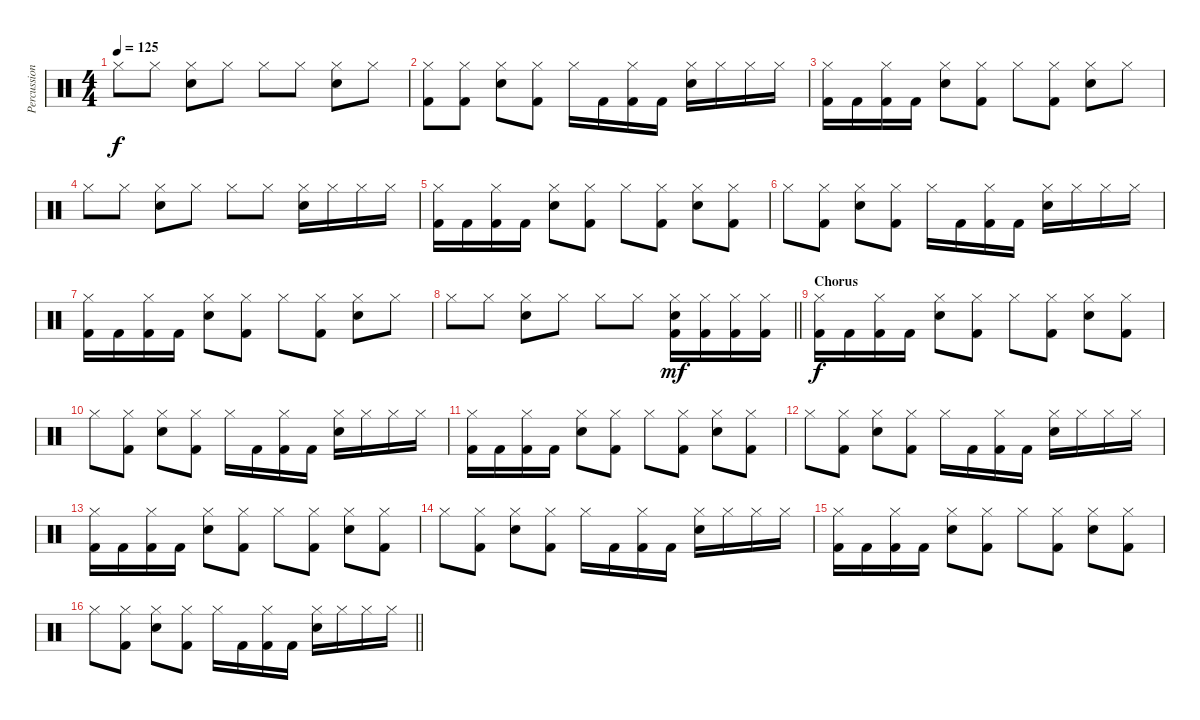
\track ("Percussion" "Percussion") {instrument percussion}
\staff {score}
\articulation defaults
\ts (4 4)
\tempo 125
\clef neutral
\ks c "Hi-Hat (closed)".8{dy f} "Hi-Hat (closed)".8
("Hi-Hat (closed)" "Electric Snare (hit)").8 "Hi-Hat (closed)".8 "Hi-Hat (closed)".8 "Hi-Hat (closed)".8 ("Hi-Hat (closed)" "Electric Snare (hit)").8 "Hi-Hat (closed)".8 |
("Hi-Hat (closed)" "Kick (hit) 2").8 ("Hi-Hat (closed)" "Kick (hit) 2").8 ("Hi-Hat (closed)" "Electric Snare (hit)").8 ("Hi-Hat (closed)" "Kick (hit) 2").8 "Hi-Hat (closed)".16 "Kick (hit) 2".16 ("Hi-Hat (closed)" "Kick (hit) 2").16 "Kick (hit) 2".16 ("Hi-Hat (closed)" "Electric Snare (hit)").16 "Hi-Hat (closed)".16 "Hi-Hat (closed)".16 "Hi-Hat (closed)".16 |
("Hi-Hat (closed)" "Kick (hit) 2").16 "Kick (hit) 2".16 ("Hi-Hat (closed)" "Kick (hit) 2").16 "Kick (hit) 2".16 ("Hi-Hat (closed)" "Electric Snare (hit)").8 ("Hi-Hat (closed)" "Kick (hit) 2").8 "Hi-Hat (closed)".8 ("Hi-Hat (closed)" "Kick (hit) 2").8 ("Hi-Hat (closed)" "Electric Snare (hit)").8 "Hi-Hat (closed)".8 |
"Hi-Hat (closed)".8 "Hi-Hat (closed)".8 ("Hi-Hat (closed)" "Electric Snare (hit)").8 "Hi-Hat (closed)".8 "Hi-Hat (closed)".8 "Hi-Hat (closed)".8 ("Hi-Hat (closed)" "Electric Snare (hit)").16 "Hi-Hat (closed)".16 "Hi-Hat (closed)".16 "Hi-Hat (closed)".16 |
("Hi-Hat (closed)" "Kick (hit) 2").16 "Kick (hit) 2".16 ("Hi-Hat (closed)" "Kick (hit) 2").16 "Kick (hit) 2".16 ("Hi-Hat (closed)" "Electric Snare (hit)").8 ("Hi-Hat (closed)" "Kick (hit) 2").8 "Hi-Hat (closed)".8 ("Hi-Hat (closed)" "Kick (hit) 2").8 ("Hi-Hat (closed)" "Electric Snare (hit)").8 ("Hi-Hat (closed)" "Kick (hit) 2").8 |
"Hi-Hat (closed)".8 ("Hi-Hat (closed)" "Kick (hit) 2").8 ("Hi-Hat (closed)" "Electric Snare (hit)").8 ("Hi-Hat (closed)" "Kick (hit) 2").8 "Hi-Hat (closed)".16 "Kick (hit) 2".16 ("Hi-Hat (closed)" "Kick (hit) 2").16 "Kick (hit) 2".16 ("Hi-Hat (closed)" "Electric Snare (hit)").16 "Hi-Hat (closed)".16 "Hi-Hat (closed)".16 "Hi-Hat (closed)".16 |
("Hi-Hat (closed)" "Kick (hit) 2").16 "Kick (hit) 2".16 ("Hi-Hat (closed)" "Kick (hit) 2").16 "Kick (hit) 2".16 ("Hi-Hat (closed)" "Electric Snare (hit)").8 ("Hi-Hat (closed)" "Kick (hit) 2").8 "Hi-Hat (closed)".8 ("Hi-Hat (closed)" "Kick (hit) 2").8 ("Hi-Hat (closed)" "Electric Snare (hit)").8 "Hi-Hat (closed)".8 |
\barLineRight lightlight "Hi-Hat (closed)".8 "Hi-Hat (closed)".8
("Hi-Hat (closed)" "Electric Snare (hit)").8 "Hi-Hat (closed)".8 "Hi-Hat (closed)".8 "Hi-Hat (closed)".8 ("Hi-Hat (closed)" "Electric Snare (hit)" "Kick (hit) 2").16{dy mf} ("Hi-Hat (closed)" "Kick (hit) 2").16 ("Hi-Hat (closed)" "Kick (hit) 2").16 ("Hi-Hat (closed)" "Kick (hit) 2").16 |
\section ("" "Chorus")
("Hi-Hat (closed)" "Kick (hit) 2").16{dy f} "Kick (hit) 2".16 ("Hi-Hat (closed)" "Kick (hit) 2").16 "Kick (hit) 2".16 ("Hi-Hat (closed)" "Electric Snare (hit)").8 ("Hi-Hat (closed)" "Kick (hit) 2").8 "Hi-Hat (closed)".8 ("Hi-Hat (closed)" "Kick (hit) 2").8 ("Hi-Hat (closed)" "Electric Snare (hit)").8 ("Hi-Hat (closed)" "Kick (hit) 2").8 |
"Hi-Hat (closed)".8 ("Hi-Hat (closed)" "Kick (hit) 2").8 ("Hi-Hat (closed)" "Electric Snare (hit)").8 ("Hi-Hat (closed)" "Kick (hit) 2").8 "Hi-Hat (closed)".16 "Kick (hit) 2".16 ("Hi-Hat (closed)" "Kick (hit) 2").16 "Kick (hit) 2".16 ("Hi-Hat (closed)" "Electric Snare (hit)").16 "Hi-Hat (closed)".16 "Hi-Hat (closed)".16 "Hi-Hat (closed)".16 |
("Hi-Hat (closed)" "Kick (hit) 2").16 "Kick (hit) 2".16 ("Hi-Hat (closed)" "Kick (hit) 2").16 "Kick (hit) 2".16 ("Hi-Hat (closed)" "Electric Snare (hit)").8 ("Hi-Hat (closed)" "Kick (hit) 2").8 "Hi-Hat (closed)".8 ("Hi-Hat (closed)" "Kick (hit) 2").8 ("Hi-Hat (closed)" "Electric Snare (hit)").8 ("Hi-Hat (closed)" "Kick (hit) 2").8 |
"Hi-Hat (closed)".8 ("Hi-Hat (closed)" "Kick (hit) 2").8 ("Hi-Hat (closed)" "Electric Snare (hit)").8 ("Hi-Hat (closed)" "Kick (hit) 2").8 "Hi-Hat (closed)".16 "Kick (hit) 2".16 ("Hi-Hat (closed)" "Kick (hit) 2").16 "Kick (hit) 2".16 ("Hi-Hat (closed)" "Electric Snare (hit)").16 "Hi-Hat (closed)".16 "Hi-Hat (closed)".16 "Hi-Hat (closed)".16 |
("Hi-Hat (closed)" "Kick (hit) 2").16 "Kick (hit) 2".16 ("Hi-Hat (closed)" "Kick (hit) 2").16 "Kick (hit) 2".16 ("Hi-Hat (closed)" "Electric Snare (hit)").8 ("Hi-Hat (closed)" "Kick (hit) 2").8 "Hi-Hat (closed)".8 ("Hi-Hat (closed)" "Kick (hit) 2").8 ("Hi-Hat (closed)" "Electric Snare (hit)").8 ("Hi-Hat (closed)" "Kick (hit) 2").8 |
"Hi-Hat (closed)".8 ("Hi-Hat (closed)" "Kick (hit) 2").8 ("Hi-Hat (closed)" "Electric Snare (hit)").8 ("Hi-Hat (closed)" "Kick (hit) 2").8 "Hi-Hat (closed)".16 "Kick (hit) 2".16 ("Hi-Hat (closed)" "Kick (hit) 2").16 "Kick (hit) 2".16 ("Hi-Hat (closed)" "Electric Snare (hit)").16 "Hi-Hat (closed)".16 "Hi-Hat (closed)".16 "Hi-Hat (closed)".16 |
("Hi-Hat (closed)" "Kick (hit) 2").16 "Kick (hit) 2".16 ("Hi-Hat (closed)" "Kick (hit) 2").16 "Kick (hit) 2".16 ("Hi-Hat (closed)" "Electric Snare (hit)").8 ("Hi-Hat (closed)" "Kick (hit) 2").8 "Hi-Hat (closed)".8 ("Hi-Hat (closed)" "Kick (hit) 2").8 ("Hi-Hat (closed)" "Electric Snare (hit)").8 ("Hi-Hat (closed)" "Kick (hit) 2").8 |
\barLineRight lightlight "Hi-Hat (closed)".8
("Hi-Hat (closed)" "Kick (hit) 2").8 ("Hi-Hat (closed)" "Electric Snare (hit)").8 ("Hi-Hat (closed)" "Kick (hit) 2").8 "Hi-Hat (closed)".16 "Kick (hit) 2".16 ("Hi-Hat (closed)" "Kick (hit) 2").16 "Kick (hit) 2".16 ("Hi-Hat (closed)" "Electric Snare (hit)").16 "Hi-Hat (closed)".16 "Hi-Hat (closed)".16 "Hi-Hat (closed)".16
